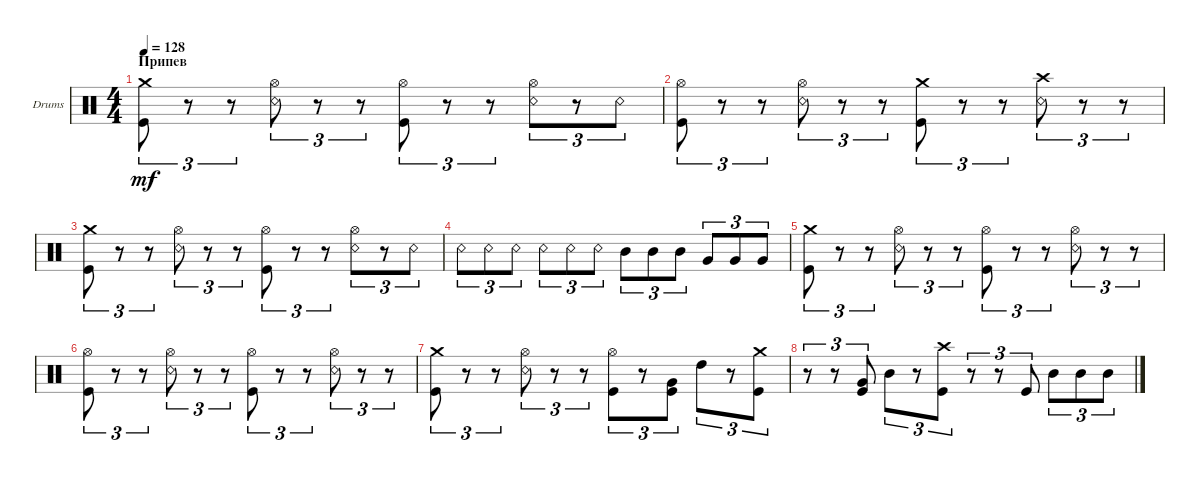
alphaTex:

\defaultSystemsLayout 4
\bracketExtendMode groupsimilarinstruments
\firstSystemTrackNameOrientation horizontal
\otherSystemsTrackNameOrientation horizontal
\track ("Drumkit" "Drums") {instrument percussion}
\staff {score}
\articulation defaults
\ts (4 4)
\section ("" "Припев")
\tempo 128
\clef neutral
\ks c
("Kick (hit)" "Crash medium (hit)").8{tu (3 2) dy mf} r.8{tu (3 2)} r.8{tu (3 2)} ("Snare (rim shot)" "Hi-Hat (open)").8{tu (3 2)} r.8{tu (3 2)} r.8{tu (3 2)} ("Kick (hit)" "Hi-Hat (open)").8{tu (3 2)} r.8{tu (3 2)} r.8{tu (3 2)} ("Snare (rim shot)" "Hi-Hat (open)").8{tu (3 2)} r.8{tu (3 2)} "Snare (rim shot)".8{tu (3 2)} |
("Kick (hit)" "Hi-Hat (open)").8{tu (3 2)} r.8{tu (3 2)} r.8{tu (3 2)} ("Snare (rim shot)" "Hi-Hat (open)").8{tu (3 2)} r.8{tu (3 2)} r.8{tu (3 2)} ("Kick (hit)" "Crash medium (hit)").8{tu (3 2)} r.8{tu (3 2)} r.8{tu (3 2)} ("Snare (rim shot)" "Crash high (hit)").8{tu (3 2)} r.8{tu (3 2)} r.8{tu (3 2)} |
("Kick (hit)" "Crash medium (hit)").8{tu (3 2)} r.8{tu (3 2)} r.8{tu (3 2)} ("Snare (rim shot)" "Hi-Hat (open)").8{tu (3 2)} r.8{tu (3 2)} r.8{tu (3 2)} ("Kick (hit)" "Hi-Hat (open)").8{tu (3 2)} r.8{tu (3 2)} r.8{tu (3 2)} ("Snare (rim shot)" "Hi-Hat (open)").8{tu (3 2)} r.8{tu (3 2)} "Snare (rim shot)".8{tu (3 2)} |
"Snare (rim shot)".8{tu (3 2)} "Snare (rim shot)".8{tu (3 2)} "Snare (rim shot)".8{tu (3 2)} "Snare (rim shot)".8{tu (3 2)} "Snare (rim shot)".8{tu (3 2)} "Snare (rim shot)".8{tu (3 2)} "Mid Tom (hit)".8{tu (3 2)} "Mid Tom (hit)".8{tu (3 2)} "Mid Tom (hit)".8{tu (3 2)} "Very Low Tom (hit)".8{tu (3 2)} "Very Low Tom (hit)".8{tu (3 2)} "Very Low Tom (hit)".8{tu (3 2)} |
("Kick (hit)" "Crash medium (hit)").8{tu (3 2)} r.8{tu (3 2)} r.8{tu (3 2)} ("Snare (rim shot)" "Hi-Hat (open)").8{tu (3 2)} r.8{tu (3 2)} r.8{tu (3 2)} ("Kick (hit)" "Hi-Hat (open)").8{tu (3 2)} r.8{tu (3 2)} r.8{tu (3 2)} ("Snare (rim shot)" "Hi-Hat (open)").8{tu (3 2)} r.8{tu (3 2)} r.8{tu (3 2)} |
("Kick (hit)" "Hi-Hat (open)").8{tu (3 2)} r.8{tu (3 2)} r.8{tu (3 2)} ("Snare (rim shot)" "Hi-Hat (open)").8{tu (3 2)} r.8{tu (3 2)} r.8{tu (3 2)} ("Kick (hit)" "Hi-Hat (open)").8{tu (3 2)} r.8{tu (3 2)} r.8{tu (3 2)} ("Snare (rim shot)" "Hi-Hat (open)").8{tu (3 2)} r.8{tu (3 2)} r.8{tu (3 2)} |
("Kick (hit)" "Crash medium (hit)").8{tu (3 2)} r.8{tu (3 2)} r.8{tu (3 2)} ("Snare (rim shot)" "Hi-Hat (open)").8{tu (3 2)} r.8{tu (3 2)} r.8{tu (3 2)} ("Kick (hit)" "Hi-Hat (open)").8{tu (3 2)} r.8{tu (3 2)} ("Kick (hit)" "Very Low Tom (hit)").8{tu (3 2)} "High Tom (hit)".8{tu (3 2)} r.8{tu (3 2)} ("Kick (hit)" "Crash medium (hit)").8{tu (3 2)} |
r.8{tu (3 2)} r.8{tu (3 2)} ("Kick (hit)" "Very Low Tom (hit)").8{tu (3 2)} "Mid Tom (hit)".8{tu (3 2)} r.8{tu (3 2)} ("Kick (hit)" "Crash high (hit)").8{tu (3 2)} r.8{tu (3 2)} r.8{tu (3 2)} "Kick (hit)".8{tu (3 2)} "Mid Tom (hit)".8{tu (3 2)} "Mid Tom (hit)".8{tu (3 2)} "Mid Tom (hit)".8{tu (3 2)}
